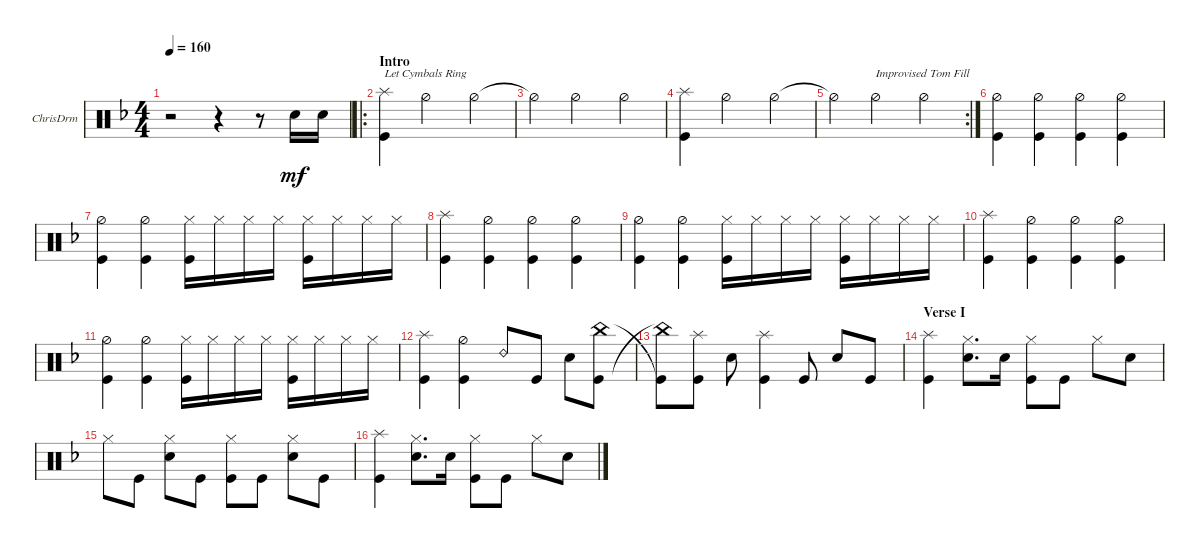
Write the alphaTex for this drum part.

\defaultSystemsLayout 4
\bracketExtendMode groupsimilarinstruments
\firstSystemTrackNameOrientation horizontal
\otherSystemsTrackNameOrientation horizontal
\track ("Drumkit" "ChrisDrm") {instrument percussion}
\staff {score}
\articulation defaults
\ts (4 4)
\tempo 160
\clef neutral
\ks dminor
r.2{dy mf} r.4 r.8 "Snare (hit) 2".16 "Snare (hit) 2".16 |
\ro
\section ("" "Intro")
("Splash (hit)" "Kick (hit)").4{txt "Let Cymbals Ring"} "Hi-Hat (half)".2 "Hi-Hat (half)".4 |
"Hi-Hat (half)"{t}.4 "Hi-Hat (half)".2 "Hi-Hat (half)".4 |
("Splash (hit)" "Kick (hit)").4 "Hi-Hat (half)".2 "Hi-Hat (half)".4 |
\rc 2 "Hi-Hat (half)"{t}.4 "Hi-Hat (half)".2{txt "Improvised Tom Fill"} "Hi-Hat (half)".4
|
("Hi-Hat (half)" "Kick (hit)").4 ("Hi-Hat (half)" "Kick (hit)").4 ("Hi-Hat (half)" "Kick (hit)").4 ("Hi-Hat (half)" "Kick (hit)").4 |
("Hi-Hat (half)" "Kick (hit)").4 ("Hi-Hat (half)" "Kick (hit)").4 ("Hi-Hat (closed)" "Kick (hit)").16 "Hi-Hat (closed)".16 "Hi-Hat (closed)".16 "Hi-Hat (closed)".16 ("Kick (hit)" "Hi-Hat (closed)").16 "Hi-Hat (closed)".16 "Hi-Hat (closed)".16 "Hi-Hat (closed)".16 |
("Kick (hit)" "Splash (hit)").4 ("Hi-Hat (half)" "Kick (hit)").4 ("Hi-Hat (half)" "Kick (hit)").4 ("Hi-Hat (half)" "Kick (hit)").4 |
("Hi-Hat (half)" "Kick (hit)").4 ("Hi-Hat (half)" "Kick (hit)").4 ("Hi-Hat (closed)" "Kick (hit)").16 "Hi-Hat (closed)".16 "Hi-Hat (closed)".16 "Hi-Hat (closed)".16 ("Kick (hit)" "Hi-Hat (closed)").16 "Hi-Hat (closed)".16 "Hi-Hat (closed)".16 "Hi-Hat (closed)".16 |
("Kick (hit)" "Splash (hit)").4 ("Hi-Hat (half)" "Kick (hit)").4 ("Hi-Hat (half)" "Kick (hit)").4 ("Hi-Hat (half)" "Kick (hit)").4 |
("Hi-Hat (half)" "Kick (hit)").4 ("Hi-Hat (half)" "Kick (hit)").4 ("Hi-Hat (closed)" "Kick (hit)").16 "Hi-Hat (closed)".16 "Hi-Hat (closed)".16 "Hi-Hat (closed)".16 ("Hi-Hat (closed)" "Kick (hit)").16 "Hi-Hat (closed)".16 "Hi-Hat (closed)".16 "Hi-Hat (closed)".16 |
("Kick (hit)" "Splash (hit)").4 ("Hi-Hat (half)" "Kick (hit)").4 "Ride (bell) 2".8 "Kick (hit)".8 "Snare (hit) 2".8 ("China (hit)" "Kick (hit)").8 |
("Kick (hit)"{t} "China (hit)"{t}).8 ("Kick (hit)" "Splash (hit)").8 "Snare (hit) 2".8 ("Splash (hit)" "Kick (hit)").4 "Kick (hit)".8 "Snare (hit) 2".8 "Kick (hit)".8 |
\section ("" "Verse I")
("Kick (hit)" "Splash (hit)").4 ("Snare (hit) 2" "Hi-Hat (closed)").8{d} "Snare (hit) 2".16 ("Kick (hit)" "Hi-Hat (closed)").8 "Kick (hit)".8 "Hi-Hat (closed)".8 "Snare (hit) 2".8 |
"Hi-Hat (closed)".8 "Kick (hit)".8 ("Snare (hit) 2" "Hi-Hat (closed)").8 "Kick (hit)".8 ("Kick (hit)" "Hi-Hat (closed)").8 "Kick (hit)".8 ("Snare (hit) 2" "Hi-Hat (closed)").8 "Kick (hit)".8 |
("Kick (hit)" "Splash (hit)").4 ("Snare (hit) 2" "Hi-Hat (closed)").8{d} "Snare (hit) 2".16 ("Kick (hit)" "Hi-Hat (closed)").8 "Kick (hit)".8 "Hi-Hat (closed)".8 "Snare (hit) 2".8
